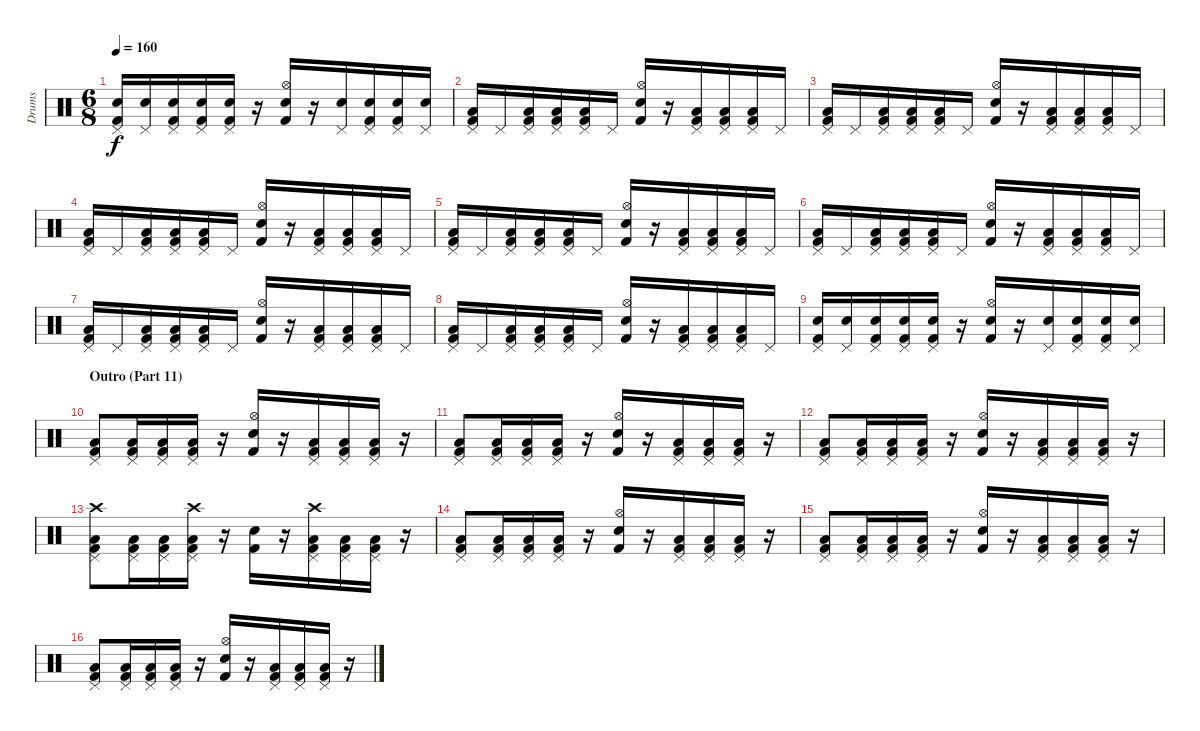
\track ("Drums" "Drums") {instrument percussion}
\staff {score}
\articulation defaults
\ts (6 8)
\tempo 160
\clef neutral
\ks c
("Pedal Hi-Hat (hit)" "Electric Snare (hit)" "Kick (hit) 2").16{dy f} ("Pedal Hi-Hat (hit)" "Electric Snare (hit)").16 ("Pedal Hi-Hat (hit)" "Electric Snare (hit)" "Kick (hit) 2").16 ("Pedal Hi-Hat (hit)" "Electric Snare (hit)" "Kick (hit) 2").16 ("Pedal Hi-Hat (hit)" "Electric Snare (hit)" "Kick (hit) 2").16 r.16 ("Hi-Hat (open)" "Snare (hit) 2" "Kick (hit) 2").16 r.16 ("Pedal Hi-Hat (hit)" "Electric Snare (hit)").16 ("Pedal Hi-Hat (hit)" "Electric Snare (hit)" "Kick (hit) 2").16 ("Pedal Hi-Hat (hit)" "Electric Snare (hit)" "Kick (hit) 2").16 ("Pedal Hi-Hat (hit)" "Electric Snare (hit)").16 |
("Pedal Hi-Hat (hit)" "Low Floor Tom (hit)" "Kick (hit) 2").16 "Pedal Hi-Hat (hit)".16 ("Pedal Hi-Hat (hit)" "Low Floor Tom (hit)" "Kick (hit) 2").16 ("Pedal Hi-Hat (hit)" "Low Floor Tom (hit)" "Kick (hit) 2").16 ("Pedal Hi-Hat (hit)" "Low Floor Tom (hit)" "Kick (hit) 2").16 "Pedal Hi-Hat (hit)".16 ("Hi-Hat (open)" "Snare (hit) 2" "Kick (hit) 2").16 r.16 ("Pedal Hi-Hat (hit)" "Low Floor Tom (hit)" "Kick (hit) 2").16 ("Pedal Hi-Hat (hit)" "Low Floor Tom (hit)" "Kick (hit) 2").16 ("Pedal Hi-Hat (hit)" "Low Floor Tom (hit)" "Kick (hit) 2").16 "Pedal Hi-Hat (hit)".16 |
("Pedal Hi-Hat (hit)" "Low Floor Tom (hit)" "Kick (hit) 2").16 "Pedal Hi-Hat (hit)".16 ("Pedal Hi-Hat (hit)" "Low Floor Tom (hit)" "Kick (hit) 2").16 ("Pedal Hi-Hat (hit)" "Low Floor Tom (hit)" "Kick (hit) 2").16 ("Pedal Hi-Hat (hit)" "Low Floor Tom (hit)" "Kick (hit) 2").16 "Pedal Hi-Hat (hit)".16 ("Hi-Hat (open)" "Snare (hit) 2" "Kick (hit) 2").16 r.16 ("Pedal Hi-Hat (hit)" "Low Floor Tom (hit)" "Kick (hit) 2").16 ("Pedal Hi-Hat (hit)" "Low Floor Tom (hit)" "Kick (hit) 2").16 ("Pedal Hi-Hat (hit)" "Low Floor Tom (hit)" "Kick (hit) 2").16 "Pedal Hi-Hat (hit)".16 |
("Pedal Hi-Hat (hit)" "Low Floor Tom (hit)" "Kick (hit) 2").16 "Pedal Hi-Hat (hit)".16 ("Pedal Hi-Hat (hit)" "Low Floor Tom (hit)" "Kick (hit) 2").16 ("Pedal Hi-Hat (hit)" "Low Floor Tom (hit)" "Kick (hit) 2").16 ("Pedal Hi-Hat (hit)" "Low Floor Tom (hit)" "Kick (hit) 2").16 "Pedal Hi-Hat (hit)".16 ("Hi-Hat (open)" "Snare (hit) 2" "Kick (hit) 2").16 r.16 ("Pedal Hi-Hat (hit)" "Low Floor Tom (hit)" "Kick (hit) 2").16 ("Pedal Hi-Hat (hit)" "Low Floor Tom (hit)" "Kick (hit) 2").16 ("Pedal Hi-Hat (hit)" "Low Floor Tom (hit)" "Kick (hit) 2").16 "Pedal Hi-Hat (hit)".16 |
("Pedal Hi-Hat (hit)" "Low Floor Tom (hit)" "Kick (hit) 2").16 "Pedal Hi-Hat (hit)".16 ("Pedal Hi-Hat (hit)" "Low Floor Tom (hit)" "Kick (hit) 2").16 ("Pedal Hi-Hat (hit)" "Low Floor Tom (hit)" "Kick (hit) 2").16 ("Pedal Hi-Hat (hit)" "Low Floor Tom (hit)" "Kick (hit) 2").16 "Pedal Hi-Hat (hit)".16 ("Hi-Hat (open)" "Snare (hit) 2" "Kick (hit) 2").16 r.16 ("Pedal Hi-Hat (hit)" "Low Floor Tom (hit)" "Kick (hit) 2").16 ("Pedal Hi-Hat (hit)" "Low Floor Tom (hit)" "Kick (hit) 2").16 ("Pedal Hi-Hat (hit)" "Low Floor Tom (hit)" "Kick (hit) 2").16 "Pedal Hi-Hat (hit)".16 |
("Pedal Hi-Hat (hit)" "Low Floor Tom (hit)" "Kick (hit) 2").16 "Pedal Hi-Hat (hit)".16 ("Pedal Hi-Hat (hit)" "Low Floor Tom (hit)" "Kick (hit) 2").16 ("Pedal Hi-Hat (hit)" "Low Floor Tom (hit)" "Kick (hit) 2").16 ("Pedal Hi-Hat (hit)" "Low Floor Tom (hit)" "Kick (hit) 2").16 "Pedal Hi-Hat (hit)".16 ("Hi-Hat (open)" "Snare (hit) 2" "Kick (hit) 2").16 r.16 ("Pedal Hi-Hat (hit)" "Low Floor Tom (hit)" "Kick (hit) 2").16 ("Pedal Hi-Hat (hit)" "Low Floor Tom (hit)" "Kick (hit) 2").16 ("Pedal Hi-Hat (hit)" "Low Floor Tom (hit)" "Kick (hit) 2").16 "Pedal Hi-Hat (hit)".16 |
("Pedal Hi-Hat (hit)" "Low Floor Tom (hit)" "Kick (hit) 2").16 "Pedal Hi-Hat (hit)".16 ("Pedal Hi-Hat (hit)" "Low Floor Tom (hit)" "Kick (hit) 2").16 ("Pedal Hi-Hat (hit)" "Low Floor Tom (hit)" "Kick (hit) 2").16 ("Pedal Hi-Hat (hit)" "Low Floor Tom (hit)" "Kick (hit) 2").16 "Pedal Hi-Hat (hit)".16 ("Hi-Hat (open)" "Snare (hit) 2" "Kick (hit) 2").16 r.16 ("Pedal Hi-Hat (hit)" "Low Floor Tom (hit)" "Kick (hit) 2").16 ("Pedal Hi-Hat (hit)" "Low Floor Tom (hit)" "Kick (hit) 2").16 ("Pedal Hi-Hat (hit)" "Low Floor Tom (hit)" "Kick (hit) 2").16 "Pedal Hi-Hat (hit)".16 |
("Pedal Hi-Hat (hit)" "Low Floor Tom (hit)" "Kick (hit) 2").16 "Pedal Hi-Hat (hit)".16 ("Pedal Hi-Hat (hit)" "Low Floor Tom (hit)" "Kick (hit) 2").16 ("Pedal Hi-Hat (hit)" "Low Floor Tom (hit)" "Kick (hit) 2").16 ("Pedal Hi-Hat (hit)" "Low Floor Tom (hit)" "Kick (hit) 2").16 "Pedal Hi-Hat (hit)".16 ("Hi-Hat (open)" "Snare (hit) 2" "Kick (hit) 2").16 r.16 ("Pedal Hi-Hat (hit)" "Low Floor Tom (hit)" "Kick (hit) 2").16 ("Pedal Hi-Hat (hit)" "Low Floor Tom (hit)" "Kick (hit) 2").16 ("Pedal Hi-Hat (hit)" "Low Floor Tom (hit)" "Kick (hit) 2").16 "Pedal Hi-Hat (hit)".16 |
("Pedal Hi-Hat (hit)" "Electric Snare (hit)" "Kick (hit) 2").16 ("Pedal Hi-Hat (hit)" "Electric Snare (hit)").16 ("Pedal Hi-Hat (hit)" "Electric Snare (hit)" "Kick (hit) 2").16 ("Pedal Hi-Hat (hit)" "Electric Snare (hit)" "Kick (hit) 2").16 ("Pedal Hi-Hat (hit)" "Electric Snare (hit)" "Kick (hit) 2").16 r.16 ("Hi-Hat (open)" "Snare (hit) 2" "Kick (hit) 2").16 r.16 ("Pedal Hi-Hat (hit)" "Electric Snare (hit)").16 ("Pedal Hi-Hat (hit)" "Electric Snare (hit)" "Kick (hit) 2").16 ("Pedal Hi-Hat (hit)" "Electric Snare (hit)" "Kick (hit) 2").16 ("Pedal Hi-Hat (hit)" "Electric Snare (hit)").16 |
\section ("" "Outro (Part 11)")
("Pedal Hi-Hat (hit)" "Low Floor Tom (hit)" "Kick (hit) 2").8 ("Pedal Hi-Hat (hit)" "Low Floor Tom (hit)" "Kick (hit) 2").16 ("Pedal Hi-Hat (hit)" "Low Floor Tom (hit)" "Kick (hit) 2").16 ("Pedal Hi-Hat (hit)" "Low Floor Tom (hit)" "Kick (hit) 2").16 r.16 ("Hi-Hat (open)" "Snare (hit) 2" "Kick (hit) 2").16 r.16 ("Pedal Hi-Hat (hit)" "Low Floor Tom (hit)" "Kick (hit) 2").16 ("Pedal Hi-Hat (hit)" "Low Floor Tom (hit)" "Kick (hit) 2").16 ("Pedal Hi-Hat (hit)" "Low Floor Tom (hit)" "Kick (hit) 2").16 r.16 |
("Pedal Hi-Hat (hit)" "Low Floor Tom (hit)" "Kick (hit) 2").8 ("Pedal Hi-Hat (hit)" "Low Floor Tom (hit)" "Kick (hit) 2").16 ("Pedal Hi-Hat (hit)" "Low Floor Tom (hit)" "Kick (hit) 2").16 ("Pedal Hi-Hat (hit)" "Low Floor Tom (hit)" "Kick (hit) 2").16 r.16 ("Hi-Hat (open)" "Snare (hit) 2" "Kick (hit) 2").16 r.16 ("Pedal Hi-Hat (hit)" "Low Floor Tom (hit)" "Kick (hit) 2").16 ("Pedal Hi-Hat (hit)" "Low Floor Tom (hit)" "Kick (hit) 2").16 ("Pedal Hi-Hat (hit)" "Low Floor Tom (hit)" "Kick (hit) 2").16 r.16 |
("Pedal Hi-Hat (hit)" "Low Floor Tom (hit)" "Kick (hit) 2").8 ("Pedal Hi-Hat (hit)" "Low Floor Tom (hit)" "Kick (hit) 2").16 ("Pedal Hi-Hat (hit)" "Low Floor Tom (hit)" "Kick (hit) 2").16 ("Pedal Hi-Hat (hit)" "Low Floor Tom (hit)" "Kick (hit) 2").16 r.16 ("Hi-Hat (open)" "Snare (hit) 2" "Kick (hit) 2").16 r.16 ("Pedal Hi-Hat (hit)" "Low Floor Tom (hit)" "Kick (hit) 2").16 ("Pedal Hi-Hat (hit)" "Low Floor Tom (hit)" "Kick (hit) 2").16 ("Pedal Hi-Hat (hit)" "Low Floor Tom (hit)" "Kick (hit) 2").16 r.16 |
("Crash high (hit)" "Pedal Hi-Hat (hit)" "Low Floor Tom (hit)" "Kick (hit) 2").8 ("Pedal Hi-Hat (hit)" "Low Floor Tom (hit)" "Kick (hit) 2").16 ("Pedal Hi-Hat (hit)" "Low Floor Tom (hit)" "Kick (hit) 2").16 ("Crash high (hit)" "Pedal Hi-Hat (hit)" "Low Floor Tom (hit)" "Kick (hit) 2").16 r.16 ("Snare (hit) 2" "Kick (hit) 2").16 r.16 ("Crash high (hit)" "Pedal Hi-Hat (hit)" "Low Floor Tom (hit)" "Kick (hit) 2").16 ("Pedal Hi-Hat (hit)" "Low Floor Tom (hit)" "Kick (hit) 2").16 ("Pedal Hi-Hat (hit)" "Low Floor Tom (hit)" "Kick (hit) 2").16 r.16 |
("Pedal Hi-Hat (hit)" "Low Floor Tom (hit)" "Kick (hit) 2").8 ("Pedal Hi-Hat (hit)" "Low Floor Tom (hit)" "Kick (hit) 2").16 ("Pedal Hi-Hat (hit)" "Low Floor Tom (hit)" "Kick (hit) 2").16 ("Pedal Hi-Hat (hit)" "Low Floor Tom (hit)" "Kick (hit) 2").16 r.16 ("Hi-Hat (open)" "Snare (hit) 2" "Kick (hit) 2").16 r.16 ("Pedal Hi-Hat (hit)" "Low Floor Tom (hit)" "Kick (hit) 2").16 ("Pedal Hi-Hat (hit)" "Low Floor Tom (hit)" "Kick (hit) 2").16 ("Pedal Hi-Hat (hit)" "Low Floor Tom (hit)" "Kick (hit) 2").16 r.16 |
("Pedal Hi-Hat (hit)" "Low Floor Tom (hit)" "Kick (hit) 2").8 ("Pedal Hi-Hat (hit)" "Low Floor Tom (hit)" "Kick (hit) 2").16 ("Pedal Hi-Hat (hit)" "Low Floor Tom (hit)" "Kick (hit) 2").16 ("Pedal Hi-Hat (hit)" "Low Floor Tom (hit)" "Kick (hit) 2").16 r.16 ("Hi-Hat (open)" "Snare (hit) 2" "Kick (hit) 2").16 r.16 ("Pedal Hi-Hat (hit)" "Low Floor Tom (hit)" "Kick (hit) 2").16 ("Pedal Hi-Hat (hit)" "Low Floor Tom (hit)" "Kick (hit) 2").16 ("Pedal Hi-Hat (hit)" "Low Floor Tom (hit)" "Kick (hit) 2").16 r.16 |
("Pedal Hi-Hat (hit)" "Low Floor Tom (hit)" "Kick (hit) 2").8 ("Pedal Hi-Hat (hit)" "Low Floor Tom (hit)" "Kick (hit) 2").16 ("Pedal Hi-Hat (hit)" "Low Floor Tom (hit)" "Kick (hit) 2").16 ("Pedal Hi-Hat (hit)" "Low Floor Tom (hit)" "Kick (hit) 2").16 r.16 ("Hi-Hat (open)" "Snare (hit) 2" "Kick (hit) 2").16 r.16 ("Pedal Hi-Hat (hit)" "Low Floor Tom (hit)" "Kick (hit) 2").16 ("Pedal Hi-Hat (hit)" "Low Floor Tom (hit)" "Kick (hit) 2").16 ("Pedal Hi-Hat (hit)" "Low Floor Tom (hit)" "Kick (hit) 2").16 r.16
